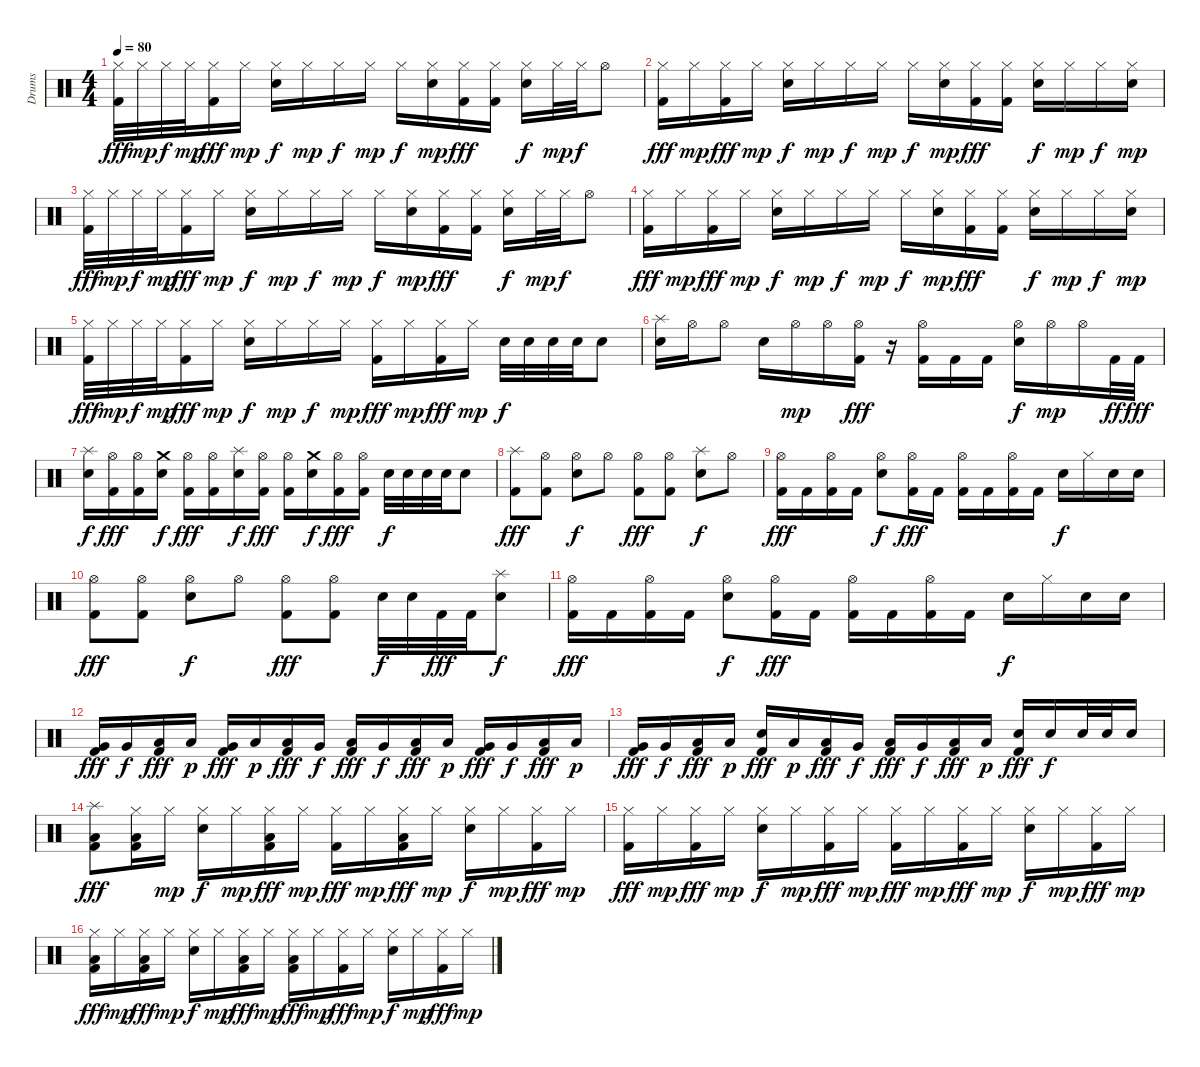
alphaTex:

\track ("Drums" "Drums") {instrument percussion}
\staff {score}
\articulation defaults
\ts (4 4)
\tempo 80
\clef neutral
\ks c
("Hi-Hat (closed)" "Kick (hit) 2").32{dy fff} "Hi-Hat (closed)".32{dy mp} "Hi-Hat (closed)".32{dy f} "Hi-Hat (closed)".32{dy mp} ("Hi-Hat (closed)" "Kick (hit) 2").16{dy fff} "Hi-Hat (closed)".16{dy mp} ("Hi-Hat (closed)" "Snare (hit) 2").16{dy f} "Hi-Hat (closed)".16{dy mp} "Hi-Hat (closed)".16{dy f} "Hi-Hat (closed)".16{dy mp} "Hi-Hat (closed)".16{dy f} ("Hi-Hat (closed)" "Snare (hit) 2").16{dy mp} ("Hi-Hat (closed)" "Kick (hit) 2").16{dy fff} ("Hi-Hat (closed)" "Kick (hit) 2").16 ("Hi-Hat (closed)" "Snare (hit) 2").16{dy f} "Hi-Hat (closed)".32{dy mp} "Hi-Hat (closed)".32{dy f} "Hi-Hat (open)".8 |
("Hi-Hat (closed)" "Kick (hit) 2").16{dy fff} "Hi-Hat (closed)".16{dy mp} ("Hi-Hat (closed)" "Kick (hit) 2").16{dy fff} "Hi-Hat (closed)".16{dy mp} ("Hi-Hat (closed)" "Snare (hit) 2").16{dy f} "Hi-Hat (closed)".16{dy mp} "Hi-Hat (closed)".16{dy f} "Hi-Hat (closed)".16{dy mp} "Hi-Hat (closed)".16{dy f} ("Hi-Hat (closed)" "Snare (hit) 2").16{dy mp} ("Hi-Hat (closed)" "Kick (hit) 2").16{dy fff} ("Hi-Hat (closed)" "Kick (hit) 2").16 ("Hi-Hat (closed)" "Snare (hit) 2").16{dy f} "Hi-Hat (closed)".16{dy mp} "Hi-Hat (closed)".16{dy f} ("Hi-Hat (closed)" "Snare (hit) 2").16{dy mp} |
("Hi-Hat (closed)" "Kick (hit) 2").32{dy fff} "Hi-Hat (closed)".32{dy mp} "Hi-Hat (closed)".32{dy f} "Hi-Hat (closed)".32{dy mp} ("Hi-Hat (closed)" "Kick (hit) 2").16{dy fff} "Hi-Hat (closed)".16{dy mp} ("Hi-Hat (closed)" "Snare (hit) 2").16{dy f} "Hi-Hat (closed)".16{dy mp} "Hi-Hat (closed)".16{dy f} "Hi-Hat (closed)".16{dy mp} "Hi-Hat (closed)".16{dy f} ("Hi-Hat (closed)" "Snare (hit) 2").16{dy mp} ("Hi-Hat (closed)" "Kick (hit) 2").16{dy fff} ("Hi-Hat (closed)" "Kick (hit) 2").16 ("Hi-Hat (closed)" "Snare (hit) 2").16{dy f} "Hi-Hat (closed)".32{dy mp} "Hi-Hat (closed)".32{dy f} "Hi-Hat (open)".8 |
("Hi-Hat (closed)" "Kick (hit) 2").16{dy fff} "Hi-Hat (closed)".16{dy mp} ("Hi-Hat (closed)" "Kick (hit) 2").16{dy fff} "Hi-Hat (closed)".16{dy mp} ("Hi-Hat (closed)" "Snare (hit) 2").16{dy f} "Hi-Hat (closed)".16{dy mp} "Hi-Hat (closed)".16{dy f} "Hi-Hat (closed)".16{dy mp} "Hi-Hat (closed)".16{dy f} ("Hi-Hat (closed)" "Snare (hit) 2").16{dy mp} ("Hi-Hat (closed)" "Kick (hit) 2").16{dy fff} ("Hi-Hat (closed)" "Kick (hit) 2").16 ("Hi-Hat (closed)" "Snare (hit) 2").16{dy f} "Hi-Hat (closed)".16{dy mp} "Hi-Hat (closed)".16{dy f} ("Hi-Hat (closed)" "Snare (hit) 2").16{dy mp} |
("Hi-Hat (closed)" "Kick (hit) 2").32{dy fff} "Hi-Hat (closed)".32{dy mp} "Hi-Hat (closed)".32{dy f} "Hi-Hat (closed)".32{dy mp} ("Hi-Hat (closed)" "Kick (hit) 2").16{dy fff} "Hi-Hat (closed)".16{dy mp} ("Hi-Hat (closed)" "Snare (hit) 2").16{dy f} "Hi-Hat (closed)".16{dy mp} "Hi-Hat (closed)".16{dy f} "Hi-Hat (closed)".16{dy mp} ("Hi-Hat (closed)" "Kick (hit) 2").16{dy fff} "Hi-Hat (closed)".16{dy mp} ("Hi-Hat (closed)" "Kick (hit) 2").16{dy fff} "Hi-Hat (closed)".16{dy mp} "Snare (hit) 2".32{dy f} "Snare (hit) 2".32 "Snare (hit) 2".32 "Snare (hit) 2".32 "Snare (hit) 2".8 |
("Splash (hit)" "Snare (hit) 2").16 "Hi-Hat (open)".16 "Hi-Hat (open)".8 "Snare (hit) 2".16 "Hi-Hat (open)".16{dy mp} "Hi-Hat (open)".16 ("Hi-Hat (open)" "Kick (hit) 2").16{dy fff} r.16 ("Hi-Hat (open)" "Kick (hit) 2").16 "Kick (hit) 2".16 "Kick (hit) 2".16 ("Hi-Hat (open)" "Snare (hit) 2").16{dy f} "Hi-Hat (open)".16{dy mp} "Hi-Hat (open)".16 "Kick (hit) 2".32{dy ff} "Kick (hit) 2".32{dy fff} |
("Splash (hit)" "Snare (hit) 2").16{dy f} ("Hi-Hat (open)" "Kick (hit) 2").16{dy fff} ("Hi-Hat (open)" "Kick (hit) 2").16 ("Crash medium (hit)" "Snare (hit) 2").16{dy f} ("Hi-Hat (open)" "Kick (hit) 2").16{dy fff} ("Hi-Hat (open)" "Kick (hit) 2").16 ("Splash (hit)" "Snare (hit) 2").16{dy f} ("Hi-Hat (open)" "Kick (hit) 2").16{dy fff} ("Hi-Hat (open)" "Kick (hit) 2").16 ("Crash medium (hit)" "Snare (hit) 2").16{dy f} ("Hi-Hat (open)" "Kick (hit) 2").16{dy fff} ("Hi-Hat (open)" "Kick (hit) 2").16 "Snare (hit) 2".32{dy f} "Snare (hit) 2".32 "Snare (hit) 2".32 "Snare (hit) 2".32 "Snare (hit) 2".8 |
("Splash (hit)" "Kick (hit) 2").8{dy fff} ("Hi-Hat (open)" "Kick (hit) 2").8 ("Hi-Hat (open)" "Snare (hit) 2").8{dy f} "Hi-Hat (open)".8 ("Hi-Hat (open)" "Kick (hit) 2").8{dy fff} ("Hi-Hat (open)" "Kick (hit) 2").8 ("Splash (hit)" "Snare (hit) 2").8{dy f} "Hi-Hat (open)".8 |
("Hi-Hat (open)" "Kick (hit) 2").16{dy fff} "Kick (hit) 2".16 ("Hi-Hat (open)" "Kick (hit) 2").16 "Kick (hit) 2".16 ("Hi-Hat (open)" "Snare (hit) 2").8{dy f} ("Hi-Hat (open)" "Kick (hit) 2").16{dy fff} "Kick (hit) 2".16 ("Hi-Hat (open)" "Kick (hit) 2").16 "Kick (hit) 2".16 ("Hi-Hat (open)" "Kick (hit) 2").16 "Kick (hit) 2".16 "Snare (hit) 2".16{dy f} "Hi-Hat (closed)".16 "Snare (hit) 2".16 "Snare (hit) 2".16 |
("Hi-Hat (open)" "Kick (hit) 2").8{dy fff} ("Hi-Hat (open)" "Kick (hit) 2").8 ("Hi-Hat (open)" "Snare (hit) 2").8{dy f} "Hi-Hat (open)".8 ("Hi-Hat (open)" "Kick (hit) 2").8{dy fff} ("Hi-Hat (open)" "Kick (hit) 2").8 "Snare (hit) 2".32{dy f} "Snare (hit) 2".32 "Kick (hit) 2".32{dy fff} "Kick (hit) 2".32 ("Splash (hit)" "Snare (hit) 2").8{dy f} |
("Hi-Hat (open)" "Kick (hit) 2").16{dy fff} "Kick (hit) 2".16 ("Hi-Hat (open)" "Kick (hit) 2").16 "Kick (hit) 2".16 ("Hi-Hat (open)" "Snare (hit) 2").8{dy f} ("Hi-Hat (open)" "Kick (hit) 2").16{dy fff} "Kick (hit) 2".16 ("Hi-Hat (open)" "Kick (hit) 2").16 "Kick (hit) 2".16 ("Hi-Hat (open)" "Kick (hit) 2").16 "Kick (hit) 2".16 "Snare (hit) 2".16{dy f} "Hi-Hat (closed)".16 "Snare (hit) 2".16 "Snare (hit) 2".16 |
("Very Low Tom (hit)" "Kick (hit) 2").16{dy fff} "Very Low Tom (hit)".16{dy f} ("Low Floor Tom (hit)" "Kick (hit) 2").16{dy fff} "Low Floor Tom (hit)".16{dy p} ("Very Low Tom (hit)" "Kick (hit) 2").16{dy fff} "Low Floor Tom (hit)".16{dy p} ("Low Floor Tom (hit)" "Kick (hit) 2").16{dy fff} "Very Low Tom (hit)".16{dy f} ("Low Floor Tom (hit)" "Kick (hit) 2").16{dy fff} "Very Low Tom (hit)".16{dy f} ("Low Floor Tom (hit)" "Kick (hit) 2").16{dy fff} "Low Floor Tom (hit)".16{dy p} ("Very Low Tom (hit)" "Kick (hit) 2").16{dy fff} "Very Low Tom (hit)".16{dy f} ("Low Floor Tom (hit)" "Kick (hit) 2").16{dy fff} "Low Floor Tom (hit)".16{dy p} |
("Very Low Tom (hit)" "Kick (hit) 2").16{dy fff} "Very Low Tom (hit)".16{dy f} ("Low Floor Tom (hit)" "Kick (hit) 2").16{dy fff} "Low Floor Tom (hit)".16{dy p} ("Snare (hit) 2" "Kick (hit) 2").16{dy fff} "Low Floor Tom (hit)".16{dy p} ("Low Floor Tom (hit)" "Kick (hit) 2").16{dy fff} "Very Low Tom (hit)".16{dy f} ("Low Floor Tom (hit)" "Kick (hit) 2").16{dy fff} "Very Low Tom (hit)".16{dy f} ("Low Floor Tom (hit)" "Kick (hit) 2").16{dy fff} "Low Floor Tom (hit)".16{dy p} ("Snare (hit) 2" "Kick (hit) 2").16{dy fff} "Snare (hit) 2".16{dy f} "Snare (hit) 2".32 "Snare (hit) 2".32 "Snare (hit) 2".16 |
("Splash (hit)" "Low Floor Tom (hit)" "Kick (hit) 2").8{dy fff} ("Hi-Hat (closed)" "Low Floor Tom (hit)" "Kick (hit) 2").16 "Hi-Hat (closed)".16{dy mp} ("Hi-Hat (closed)" "Snare (hit) 2").16{dy f} "Hi-Hat (closed)".16{dy mp} ("Hi-Hat (closed)" "Low Floor Tom (hit)" "Kick (hit) 2").16{dy fff} "Hi-Hat (closed)".16{dy mp} ("Hi-Hat (closed)" "Kick (hit) 2").16{dy fff} "Hi-Hat (closed)".16{dy mp} ("Hi-Hat (closed)" "Low Floor Tom (hit)" "Kick (hit) 2").16{dy fff} "Hi-Hat (closed)".16{dy mp} ("Hi-Hat (closed)" "Snare (hit) 2").16{dy f} "Hi-Hat (closed)".16{dy mp} ("Hi-Hat (closed)" "Kick (hit) 2").16{dy fff} "Hi-Hat (closed)".16{dy mp} |
("Hi-Hat (closed)" "Kick (hit) 2").16{dy fff} "Hi-Hat (closed)".16{dy mp} ("Hi-Hat (closed)" "Kick (hit) 2").16{dy fff} "Hi-Hat (closed)".16{dy mp} ("Hi-Hat (closed)" "Snare (hit) 2").16{dy f} "Hi-Hat (closed)".16{dy mp} ("Hi-Hat (closed)" "Kick (hit) 2").16{dy fff} "Hi-Hat (closed)".16{dy mp} ("Hi-Hat (closed)" "Kick (hit) 2").16{dy fff} "Hi-Hat (closed)".16{dy mp} ("Hi-Hat (closed)" "Kick (hit) 2").16{dy fff} "Hi-Hat (closed)".16{dy mp} ("Hi-Hat (closed)" "Snare (hit) 2").16{dy f} "Hi-Hat (closed)".16{dy mp} ("Hi-Hat (closed)" "Kick (hit) 2").16{dy fff} "Hi-Hat (closed)".16{dy mp} |
("Hi-Hat (closed)" "Low Floor Tom (hit)" "Kick (hit) 2").16{dy fff} "Hi-Hat (closed)".16{dy mp} ("Hi-Hat (closed)" "Low Floor Tom (hit)" "Kick (hit) 2").16{dy fff} "Hi-Hat (closed)".16{dy mp} ("Hi-Hat (closed)" "Snare (hit) 2").16{dy f} "Hi-Hat (closed)".16{dy mp} ("Hi-Hat (closed)" "Low Floor Tom (hit)" "Kick (hit) 2").16{dy fff} "Hi-Hat (closed)".16{dy mp} ("Hi-Hat (closed)" "Low Floor Tom (hit)" "Kick (hit) 2").16{dy fff} "Hi-Hat (closed)".16{dy mp} ("Hi-Hat (closed)" "Kick (hit) 2").16{dy fff} "Hi-Hat (closed)".16{dy mp} ("Hi-Hat (closed)" "Snare (hit) 2").16{dy f} "Hi-Hat (closed)".16{dy mp} ("Hi-Hat (closed)" "Kick (hit) 2").16{dy fff} "Hi-Hat (closed)".16{dy mp}
